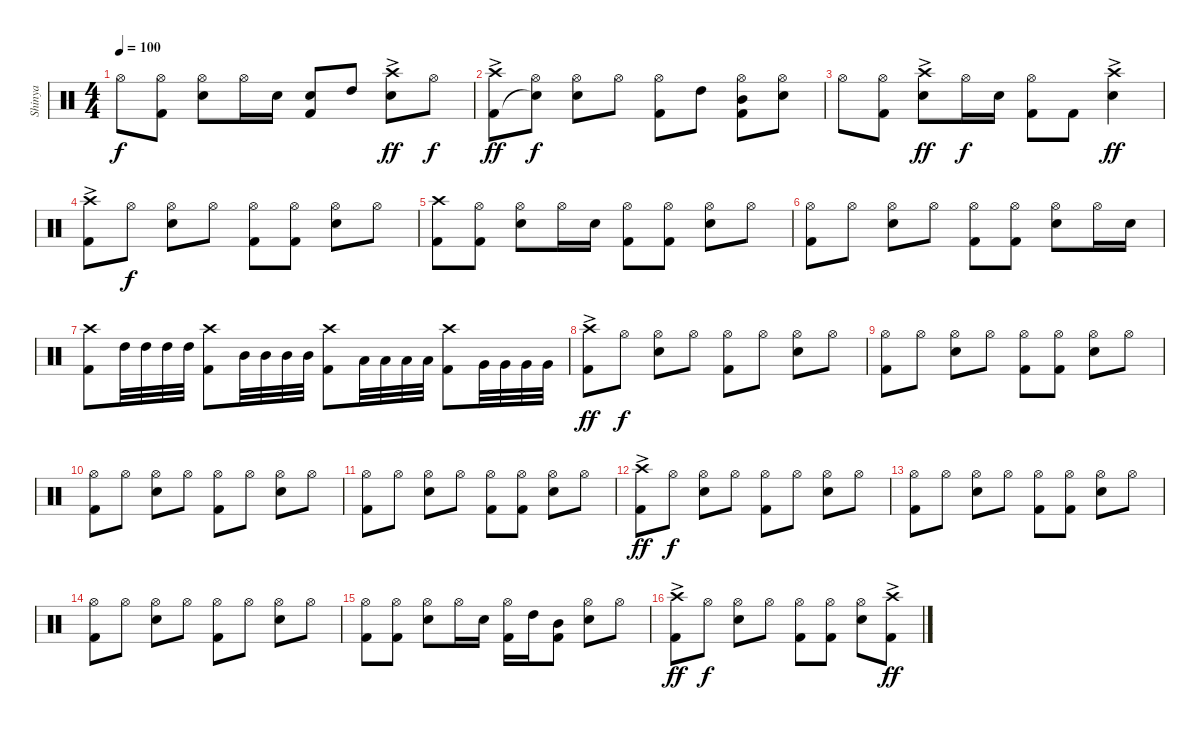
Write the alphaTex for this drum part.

\track ("Shinya" "Shinya") {instrument percussion}
\staff {score}
\articulation defaults
\ts (4 4)
\tempo 100
\clef neutral
\ks c "Hi-Hat (open)".8{dy f}
("Hi-Hat (open)" "Kick (hit) 2").8 ("Hi-Hat (open)" "Snare (hit) 2").8 "Hi-Hat (open)".16 "Snare (hit) 2".16 ("Snare (hit) 2" "Kick (hit) 2").8 "High Tom (hit)".8 ("Crash high (hit)"{ac} "Snare (hit) 2").8{dy ff} "Hi-Hat (open)".8{dy f} |
("Crash high (hit)"{ac} "Kick (hit) 2").8{dy ff} ("Hi-Hat (open)" "Snare (hit)"{t}).8{dy f} ("Hi-Hat (open)" "Snare (hit) 2").8 "Hi-Hat (open)".8 ("Hi-Hat (open)" "Kick (hit) 2").8 "High Tom (hit)".8 ("Hi-Hat (open)" "Mid Tom (hit)" "Kick (hit) 2").8 ("Hi-Hat (open)" "Snare (hit) 2").8 |
"Hi-Hat (open)".8 ("Hi-Hat (open)" "Kick (hit) 2").8 ("Crash high (hit)"{ac} "Snare (hit) 2").8{dy ff} "Hi-Hat (open)".16{dy f} "Snare (hit) 2".16 ("Hi-Hat (open)" "Kick (hit) 2").8 "Kick (hit) 2".8 ("Crash high (hit)"{ac} "Snare (hit) 2").4{dy ff} |
("Crash high (hit)"{ac} "Kick (hit) 2").8 "Hi-Hat (open)".8{dy f} ("Hi-Hat (open)" "Snare (hit) 2").8 "Hi-Hat (open)".8 ("Hi-Hat (open)" "Kick (hit) 2").8 ("Hi-Hat (open)" "Kick (hit) 2").8 ("Hi-Hat (open)" "Snare (hit) 2").8 "Hi-Hat (open)".8 |
("Crash high (hit)" "Kick (hit) 2").8 ("Hi-Hat (open)" "Kick (hit) 2").8 ("Hi-Hat (open)" "Snare (hit) 2").8 "Hi-Hat (open)".16 "Snare (hit) 2".16 ("Hi-Hat (open)" "Kick (hit) 2").8 ("Hi-Hat (open)" "Kick (hit) 2").8 ("Hi-Hat (open)" "Snare (hit) 2").8 "Hi-Hat (open)".8 |
("Hi-Hat (open)" "Kick (hit) 2").8 "Hi-Hat (open)".8 ("Hi-Hat (open)" "Snare (hit) 2").8 "Hi-Hat (open)".8 ("Hi-Hat (open)" "Kick (hit) 2").8 ("Hi-Hat (open)" "Kick (hit) 2").8 ("Hi-Hat (open)" "Snare (hit) 2").8 "Hi-Hat (open)".16 "Snare (hit) 2".16 |
("Crash high (hit)" "Kick (hit) 2").8 "High Tom (hit)".32 "High Tom (hit)".32 "High Tom (hit)".32 "High Tom (hit)".32 ("Crash high (hit)" "Kick (hit) 2").8 "Mid Tom (hit)".32 "Mid Tom (hit)".32 "Mid Tom (hit)".32 "Mid Tom (hit)".32 ("Crash high (hit)" "Kick (hit) 2").8 "Low Tom (hit)".32 "Low Tom (hit)".32 "Low Tom (hit)".32 "Low Tom (hit)".32 ("Crash high (hit)" "Kick (hit) 2").8 "Very Low Tom (hit)".32 "Very Low Tom (hit)".32 "Very Low Tom (hit)".32 "Very Low Tom (hit)".32 |
("Crash high (hit)"{ac} "Kick (hit) 2").8{dy ff volume 11} "Hi-Hat (open)".8{dy f} ("Hi-Hat (open)" "Snare (hit) 2").8 "Hi-Hat (open)".8 ("Hi-Hat (open)" "Kick (hit) 2").8 "Hi-Hat (open)".8 ("Hi-Hat (open)" "Snare (hit) 2").8 "Hi-Hat (open)".8 |
("Hi-Hat (open)" "Kick (hit) 2").8 "Hi-Hat (open)".8 ("Hi-Hat (open)" "Snare (hit) 2").8 "Hi-Hat (open)".8 ("Hi-Hat (open)" "Kick (hit) 2").8 ("Hi-Hat (open)" "Kick (hit) 2").8 ("Hi-Hat (open)" "Snare (hit) 2").8 "Hi-Hat (open)".8 |
("Hi-Hat (open)" "Kick (hit) 2").8 "Hi-Hat (open)".8 ("Hi-Hat (open)" "Snare (hit) 2").8 "Hi-Hat (open)".8 ("Hi-Hat (open)" "Kick (hit) 2").8 "Hi-Hat (open)".8 ("Hi-Hat (open)" "Snare (hit) 2").8 "Hi-Hat (open)".8 |
("Hi-Hat (open)" "Kick (hit) 2").8 "Hi-Hat (open)".8 ("Hi-Hat (open)" "Snare (hit) 2").8 "Hi-Hat (open)".8 ("Hi-Hat (open)" "Kick (hit) 2").8 ("Hi-Hat (open)" "Kick (hit) 2").8 ("Hi-Hat (open)" "Snare (hit) 2").8 "Hi-Hat (open)".8 |
("Crash high (hit)"{ac} "Kick (hit) 2").8{dy ff} "Hi-Hat (open)".8{dy f} ("Hi-Hat (open)" "Snare (hit) 2").8 "Hi-Hat (open)".8 ("Hi-Hat (open)" "Kick (hit) 2").8 "Hi-Hat (open)".8 ("Hi-Hat (open)" "Snare (hit) 2").8 "Hi-Hat (open)".8 |
("Hi-Hat (open)" "Kick (hit) 2").8 "Hi-Hat (open)".8 ("Hi-Hat (open)" "Snare (hit) 2").8 "Hi-Hat (open)".8 ("Hi-Hat (open)" "Kick (hit) 2").8 ("Hi-Hat (open)" "Kick (hit) 2").8 ("Hi-Hat (open)" "Snare (hit) 2").8 "Hi-Hat (open)".8 |
("Hi-Hat (open)" "Kick (hit) 2").8 "Hi-Hat (open)".8 ("Hi-Hat (open)" "Snare (hit) 2").8 "Hi-Hat (open)".8 ("Hi-Hat (open)" "Kick (hit) 2").8 "Hi-Hat (open)".8 ("Hi-Hat (open)" "Snare (hit) 2").8 "Hi-Hat (open)".8 |
("Hi-Hat (open)" "Kick (hit) 2").8 ("Hi-Hat (open)" "Kick (hit) 2").8 ("Hi-Hat (open)" "Snare (hit) 2").8 "Hi-Hat (open)".16 "Snare (hit) 2".16 ("Hi-Hat (open)" "Kick (hit) 2").16 "High Tom (hit)".16 ("Mid Tom (hit)" "Kick (hit) 2").8 ("Hi-Hat (open)" "Snare (hit) 2").8 "Hi-Hat (open)".8 |
("Crash high (hit)"{ac} "Kick (hit) 2").8{dy ff} "Hi-Hat (open)".8{dy f} ("Hi-Hat (open)" "Snare (hit) 2").8 "Hi-Hat (open)".8 ("Hi-Hat (open)" "Kick (hit) 2").8 ("Hi-Hat (open)" "Kick (hit) 2").8 ("Hi-Hat (open)" "Snare (hit) 2").8 ("Crash high (hit)"{ac} "Kick (hit) 2").8{dy ff}
